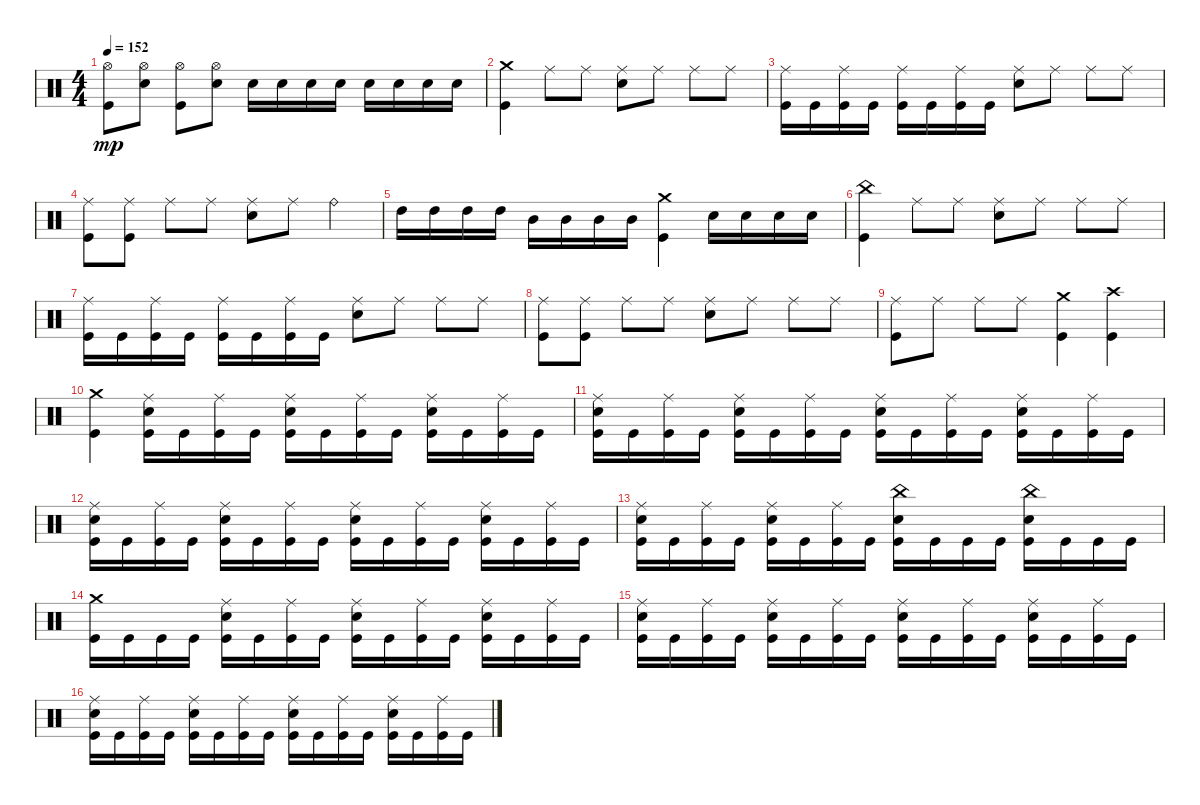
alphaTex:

\track "" {instrument percussion}
\staff {score}
\articulation defaults
\ts (4 4)
\tempo 152
\clef neutral
\ks c
("Kick (hit)" "Hi-Hat (open)").8{dy mp} ("Snare (hit) 2" "Hi-Hat (open)").8 ("Kick (hit)" "Hi-Hat (open)").8 ("Snare (hit) 2" "Hi-Hat (open)").8 "Snare (hit) 2".16 "Snare (hit) 2".16 "Snare (hit) 2".16 "Snare (hit) 2".16 "Snare (hit) 2".16 "Snare (hit) 2".16 "Snare (hit) 2".16 "Snare (hit) 2".16 |
("Kick (hit)" "Crash medium (hit)").4 "Ride (middle)".8 "Ride (middle)".8 ("Ride (middle)" "Snare (hit) 2").8 "Ride (middle)".8 "Ride (middle)".8 "Ride (middle)".8 |
("Ride (middle)" "Kick (hit)").16 "Kick (hit)".16 ("Ride (middle)" "Kick (hit)").16 "Kick (hit)".16 ("Ride (middle)" "Kick (hit)").16 "Kick (hit)".16 ("Ride (middle)" "Kick (hit)").16 "Kick (hit)".16 ("Ride (middle)" "Snare (hit) 2").8 "Ride (middle)".8 "Ride (middle)".8 "Ride (middle)".8 |
("Kick (hit)" "Ride (middle)").8 ("Kick (hit)" "Ride (middle)").8 "Ride (middle)".8 "Ride (middle)".8 ("Ride (middle)" "Snare (hit) 2").8 "Ride (middle)".8 "Ride (bell)".4 |
"High Tom (hit)".16 "High Tom (hit)".16 "High Tom (hit)".16 "High Tom (hit)".16 "Mid Tom (hit)".16 "Mid Tom (hit)".16 "Mid Tom (hit)".16 "Mid Tom (hit)".16 ("Kick (hit)" "Crash medium (hit)").4 "Snare (hit) 2".16 "Snare (hit) 2".16 "Snare (hit) 2".16 "Snare (hit) 2".16 |
("Kick (hit)" "China (hit)").4 "Ride (middle)".8 "Ride (middle)".8 ("Ride (middle)" "Snare (hit) 2").8 "Ride (middle)".8 "Ride (middle)".8 "Ride (middle)".8 |
("Ride (middle)" "Kick (hit)").16 "Kick (hit)".16 ("Ride (middle)" "Kick (hit)").16 "Kick (hit)".16 ("Ride (middle)" "Kick (hit)").16 "Kick (hit)".16 ("Ride (middle)" "Kick (hit)").16 "Kick (hit)".16 ("Ride (middle)" "Snare (hit) 2").8 "Ride (middle)".8 "Ride (middle)".8 "Ride (middle)".8 |
("Kick (hit)" "Ride (middle)").8 ("Kick (hit)" "Ride (middle)").8 "Ride (middle)".8 "Ride (middle)".8 ("Ride (middle)" "Snare (hit) 2").8 "Ride (middle)".8 "Ride (middle)".8 "Ride (middle)".8 |
("Kick (hit)" "Ride (middle)").8 "Ride (middle)".8 "Ride (middle)".8 "Ride (middle)".8 ("Crash medium (hit)" "Kick (hit)").4 ("Kick (hit)" "Crash high (hit)").4 |
("Kick (hit)" "Crash medium (hit)").4 ("Kick (hit)" "Snare (hit) 2" "Ride (middle)").16 "Kick (hit)".16 ("Kick (hit)" "Ride (middle)").16 "Kick (hit)".16 ("Kick (hit)" "Snare (hit) 2" "Ride (middle)").16 "Kick (hit)".16 ("Kick (hit)" "Ride (middle)").16 "Kick (hit)".16 ("Kick (hit)" "Snare (hit) 2" "Ride (middle)").16 "Kick (hit)".16 ("Kick (hit)" "Ride (middle)").16 "Kick (hit)".16 |
("Kick (hit)" "Snare (hit) 2" "Ride (middle)").16 "Kick (hit)".16 ("Kick (hit)" "Ride (middle)").16 "Kick (hit)".16 ("Kick (hit)" "Snare (hit) 2" "Ride (middle)").16 "Kick (hit)".16 ("Kick (hit)" "Ride (middle)").16 "Kick (hit)".16 ("Kick (hit)" "Snare (hit) 2" "Ride (middle)").16 "Kick (hit)".16 ("Kick (hit)" "Ride (middle)").16 "Kick (hit)".16 ("Kick (hit)" "Snare (hit) 2" "Ride (middle)").16 "Kick (hit)".16 ("Kick (hit)" "Ride (middle)").16 "Kick (hit)".16 |
("Kick (hit)" "Snare (hit) 2" "Ride (middle)").16 "Kick (hit)".16 ("Kick (hit)" "Ride (middle)").16 "Kick (hit)".16 ("Kick (hit)" "Snare (hit) 2" "Ride (middle)").16 "Kick (hit)".16 ("Kick (hit)" "Ride (middle)").16 "Kick (hit)".16 ("Kick (hit)" "Snare (hit) 2" "Ride (middle)").16 "Kick (hit)".16 ("Kick (hit)" "Ride (middle)").16 "Kick (hit)".16 ("Kick (hit)" "Snare (hit) 2" "Ride (middle)").16 "Kick (hit)".16 ("Kick (hit)" "Ride (middle)").16 "Kick (hit)".16 |
("Kick (hit)" "Snare (hit) 2" "Ride (middle)").16 "Kick (hit)".16 ("Kick (hit)" "Ride (middle)").16 "Kick (hit)".16 ("Kick (hit)" "Snare (hit) 2" "Ride (middle)").16 "Kick (hit)".16 ("Kick (hit)" "Ride (middle)").16 "Kick (hit)".16 ("Kick (hit)" "Snare (hit) 2" "China (hit)").16 "Kick (hit)".16 "Kick (hit)".16 "Kick (hit)".16 ("Kick (hit)" "Snare (hit) 2" "China (hit)").16 "Kick (hit)".16 "Kick (hit)".16 "Kick (hit)".16 |
("Kick (hit)" "Crash medium (hit)").16 "Kick (hit)".16 "Kick (hit)".16 "Kick (hit)".16 ("Kick (hit)" "Snare (hit) 2" "Ride (middle)").16 "Kick (hit)".16 ("Kick (hit)" "Ride (middle)").16 "Kick (hit)".16 ("Kick (hit)" "Snare (hit) 2" "Ride (middle)").16 "Kick (hit)".16 ("Kick (hit)" "Ride (middle)").16 "Kick (hit)".16 ("Kick (hit)" "Snare (hit) 2" "Ride (middle)").16 "Kick (hit)".16 ("Kick (hit)" "Ride (middle)").16 "Kick (hit)".16 |
("Kick (hit)" "Snare (hit) 2" "Ride (middle)").16 "Kick (hit)".16 ("Kick (hit)" "Ride (middle)").16 "Kick (hit)".16 ("Kick (hit)" "Snare (hit) 2" "Ride (middle)").16 "Kick (hit)".16 ("Kick (hit)" "Ride (middle)").16 "Kick (hit)".16 ("Kick (hit)" "Snare (hit) 2" "Ride (middle)").16 "Kick (hit)".16 ("Kick (hit)" "Ride (middle)").16 "Kick (hit)".16 ("Kick (hit)" "Snare (hit) 2" "Ride (middle)").16 "Kick (hit)".16 ("Kick (hit)" "Ride (middle)").16 "Kick (hit)".16 |
("Kick (hit)" "Snare (hit) 2" "Ride (middle)").16 "Kick (hit)".16 ("Kick (hit)" "Ride (middle)").16 "Kick (hit)".16 ("Kick (hit)" "Snare (hit) 2" "Ride (middle)").16 "Kick (hit)".16 ("Kick (hit)" "Ride (middle)").16 "Kick (hit)".16 ("Kick (hit)" "Snare (hit) 2" "Ride (middle)").16 "Kick (hit)".16 ("Kick (hit)" "Ride (middle)").16 "Kick (hit)".16 ("Kick (hit)" "Snare (hit) 2" "Ride (middle)").16 "Kick (hit)".16 ("Kick (hit)" "Ride (middle)").16 "Kick (hit)".16
